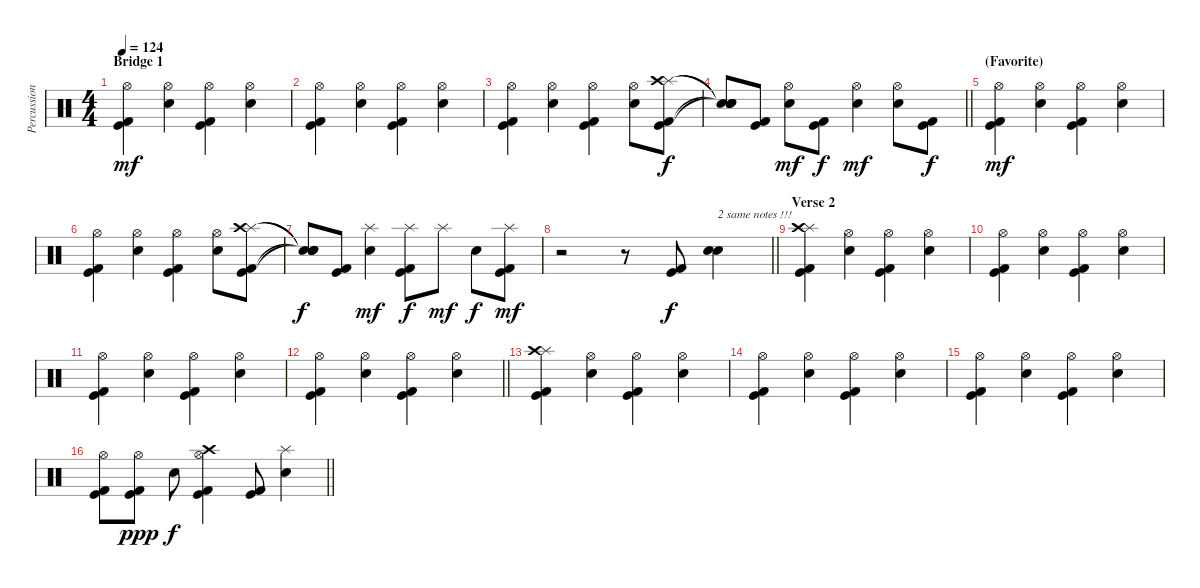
\track ("Percussion" "Percussion") {instrument percussion}
\staff {score}
\articulation defaults
\ts (4 4)
\section ("" "Bridge 1")
\tempo 124
\clef neutral
\ks c
("Hi-Hat (open)" "Kick (hit)" "Kick (hit) 2").4{dy mf} ("Hi-Hat (open)" "Snare (hit) 2").4 ("Hi-Hat (open)" "Kick (hit)" "Kick (hit) 2").4 ("Hi-Hat (open)" "Snare (hit) 2").4 |
("Hi-Hat (open)" "Kick (hit)" "Kick (hit) 2").4 ("Hi-Hat (open)" "Snare (hit) 2").4 ("Hi-Hat (open)" "Kick (hit)" "Kick (hit) 2").4 ("Hi-Hat (open)" "Snare (hit) 2").4 |
("Hi-Hat (open)" "Kick (hit)" "Kick (hit) 2").4 ("Hi-Hat (open)" "Snare (hit) 2").4 ("Hi-Hat (open)" "Kick (hit)" "Kick (hit) 2").4 ("Hi-Hat (open)" "Snare (hit) 2").8 ("Splash (hit)" "Crash high (hit)" "Kick (hit)" "Kick (hit) 2").8{dy f} |
\barLineRight lightlight
("Snare (hit)"{t} "Snare (hit)"{t} "Snare (hit)"{t} "Snare (hit)"{t}).8 ("Kick (hit)" "Kick (hit) 2").8 ("Hi-Hat (open)" "Snare (hit) 2").8{dy mf} ("Kick (hit)" "Kick (hit) 2").8{dy f} ("Hi-Hat (open)" "Snare (hit) 2").4{dy mf} ("Hi-Hat (open)" "Snare (hit) 2").8 ("Kick (hit)" "Kick (hit) 2").8{dy f} |
\section ("" "(Favorite)")
("Hi-Hat (open)" "Kick (hit)" "Kick (hit) 2").4{dy mf} ("Hi-Hat (open)" "Snare (hit) 2").4 ("Hi-Hat (open)" "Kick (hit)" "Kick (hit) 2").4 ("Hi-Hat (open)" "Snare (hit) 2").4 |
("Hi-Hat (open)" "Kick (hit)" "Kick (hit) 2").4 ("Hi-Hat (open)" "Snare (hit) 2").4 ("Hi-Hat (open)" "Kick (hit)" "Kick (hit) 2").4 ("Hi-Hat (open)" "Snare (hit) 2").8 ("Splash (hit)" "Crash high (hit)" "Kick (hit)" "Kick (hit) 2").8 |
("Snare (hit)"{t} "Snare (hit)"{t} "Snare (hit)"{t} "Snare (hit)"{t}).8{dy f} ("Kick (hit)" "Kick (hit) 2").8 ("Splash (hit)" "Snare (hit) 2").4{dy mf} ("Splash (hit)" "Kick (hit)" "Kick (hit) 2").8{dy f} "Splash (hit)".8{dy mf} "Snare (hit) 2".8{dy f} ("Splash (hit)" "Kick (hit)" "Kick (hit) 2").8{dy mf} |
\barLineRight lightlight
r.2 r.8 ("Kick (hit)" "Kick (hit) 2").8{dy f} ("Snare (hit) 2" "Snare (hit) 2").4{bd 60 txt "2 same notes !!!"} |
\section ("" "Verse 2")
("Splash (hit)" "Crash high (hit)" "Kick (hit)" "Kick (hit) 2").4 ("Hi-Hat (open)" "Snare (hit) 2").4 ("Hi-Hat (open)" "Kick (hit)" "Kick (hit) 2").4 ("Hi-Hat (open)" "Snare (hit) 2").4 |
("Hi-Hat (open)" "Kick (hit)" "Kick (hit) 2").4 ("Hi-Hat (open)" "Snare (hit) 2").4 ("Hi-Hat (open)" "Kick (hit)" "Kick (hit) 2").4 ("Hi-Hat (open)" "Snare (hit) 2").4 |
("Hi-Hat (open)" "Kick (hit)" "Kick (hit) 2").4 ("Hi-Hat (open)" "Snare (hit) 2").4 ("Hi-Hat (open)" "Kick (hit)" "Kick (hit) 2").4 ("Hi-Hat (open)" "Snare (hit) 2").4 |
\barLineRight lightlight
("Hi-Hat (open)" "Kick (hit)" "Kick (hit) 2").4 ("Hi-Hat (open)" "Snare (hit) 2").4 ("Hi-Hat (open)" "Kick (hit)" "Kick (hit) 2").4 ("Hi-Hat (open)" "Snare (hit) 2").4 |
("Splash (hit)" "Crash high (hit)" "Kick (hit)" "Kick (hit) 2").4 ("Hi-Hat (open)" "Snare (hit) 2").4 ("Hi-Hat (open)" "Kick (hit)" "Kick (hit) 2").4 ("Hi-Hat (open)" "Snare (hit) 2").4 |
("Hi-Hat (open)" "Kick (hit)" "Kick (hit) 2").4 ("Hi-Hat (open)" "Snare (hit) 2").4 ("Hi-Hat (open)" "Kick (hit)" "Kick (hit) 2").4 ("Hi-Hat (open)" "Snare (hit) 2").4 |
("Hi-Hat (open)" "Kick (hit)" "Kick (hit) 2").4 ("Hi-Hat (open)" "Snare (hit) 2").4 ("Hi-Hat (open)" "Kick (hit)" "Kick (hit) 2").4 ("Hi-Hat (open)" "Snare (hit) 2").4 |
\barLineRight lightlight
("Hi-Hat (open)" "Kick (hit)" "Kick (hit) 2").8 ("Hi-Hat (open)" "Kick (hit) 2" "Kick (hit)").8{dy ppp} "Snare (hit) 2".8{dy f} ("Crash high (hit)" "Hi-Hat (open)" "Kick (hit)" "Kick (hit) 2").4 ("Kick (hit)" "Kick (hit) 2").8 ("Splash (hit)" "Snare (hit) 2").4
